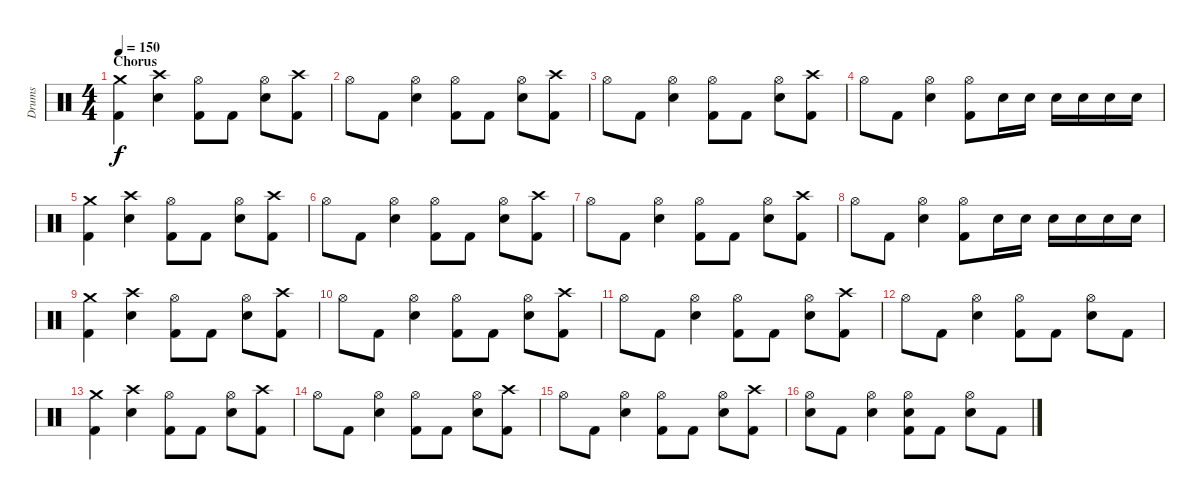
\track ("Drums" "Drums") {instrument percussion}
\staff {score}
\articulation defaults
\ts (4 4)
\section ("" "Chorus")
\tempo 150
\clef neutral
\ks c
("Crash medium (hit)" "Kick (hit) 2").4{dy f} ("Crash high (hit)" "Snare (hit) 2").4 ("Hi-Hat (open)" "Kick (hit) 2").8 "Kick (hit) 2".8 ("Hi-Hat (open)" "Snare (hit) 2").8 ("Crash high (hit)" "Kick (hit) 2").8 |
"Hi-Hat (open)".8 "Kick (hit) 2".8 ("Hi-Hat (open)" "Snare (hit) 2").4 ("Hi-Hat (open)" "Kick (hit) 2").8 "Kick (hit) 2".8 ("Hi-Hat (open)" "Snare (hit) 2").8 ("Crash high (hit)" "Kick (hit) 2").8 |
"Hi-Hat (open)".8 "Kick (hit) 2".8 ("Hi-Hat (open)" "Snare (hit) 2").4 ("Hi-Hat (open)" "Kick (hit) 2").8 "Kick (hit) 2".8 ("Hi-Hat (open)" "Snare (hit) 2").8 ("Crash high (hit)" "Kick (hit) 2").8 |
"Hi-Hat (open)".8 "Kick (hit) 2".8 ("Hi-Hat (open)" "Snare (hit) 2").4 ("Hi-Hat (open)" "Kick (hit) 2").8 "Snare (hit) 2".16 "Snare (hit) 2".16 "Snare (hit) 2".16 "Snare (hit) 2".16 "Snare (hit) 2".16 "Snare (hit) 2".16 |
\section ("" "")
("Crash medium (hit)" "Kick (hit) 2").4 ("Crash high (hit)" "Snare (hit) 2").4 ("Hi-Hat (open)" "Kick (hit) 2").8 "Kick (hit) 2".8 ("Hi-Hat (open)" "Snare (hit) 2").8 ("Crash high (hit)" "Kick (hit) 2").8 |
"Hi-Hat (open)".8 "Kick (hit) 2".8 ("Hi-Hat (open)" "Snare (hit) 2").4 ("Hi-Hat (open)" "Kick (hit) 2").8 "Kick (hit) 2".8 ("Hi-Hat (open)" "Snare (hit) 2").8 ("Crash high (hit)" "Kick (hit) 2").8 |
"Hi-Hat (open)".8 "Kick (hit) 2".8 ("Hi-Hat (open)" "Snare (hit) 2").4 ("Hi-Hat (open)" "Kick (hit) 2").8 "Kick (hit) 2".8 ("Hi-Hat (open)" "Snare (hit) 2").8 ("Crash high (hit)" "Kick (hit) 2").8 |
"Hi-Hat (open)".8 "Kick (hit) 2".8 ("Hi-Hat (open)" "Snare (hit) 2").4 ("Hi-Hat (open)" "Kick (hit) 2").8 "Snare (hit) 2".16 "Snare (hit) 2".16 "Snare (hit) 2".16 "Snare (hit) 2".16 "Snare (hit) 2".16 "Snare (hit) 2".16 |
\section ("" "")
("Crash medium (hit)" "Kick (hit) 2").4 ("Crash high (hit)" "Snare (hit) 2").4 ("Hi-Hat (open)" "Kick (hit) 2").8 "Kick (hit) 2".8 ("Hi-Hat (open)" "Snare (hit) 2").8 ("Crash high (hit)" "Kick (hit) 2").8 |
"Hi-Hat (open)".8 "Kick (hit) 2".8 ("Hi-Hat (open)" "Snare (hit) 2").4 ("Hi-Hat (open)" "Kick (hit) 2").8 "Kick (hit) 2".8 ("Hi-Hat (open)" "Snare (hit) 2").8 ("Crash high (hit)" "Kick (hit) 2").8 |
"Hi-Hat (open)".8 "Kick (hit) 2".8 ("Hi-Hat (open)" "Snare (hit) 2").4 ("Hi-Hat (open)" "Kick (hit) 2").8 "Kick (hit) 2".8 ("Hi-Hat (open)" "Snare (hit) 2").8 ("Crash high (hit)" "Kick (hit) 2").8 |
"Hi-Hat (open)".8 "Kick (hit) 2".8 ("Hi-Hat (open)" "Snare (hit) 2").4 ("Hi-Hat (open)" "Kick (hit) 2").8 "Kick (hit) 2".8 ("Hi-Hat (open)" "Snare (hit) 2").8 "Kick (hit) 2".8 |
\section ("" "")
("Crash medium (hit)" "Kick (hit) 2").4 ("Crash high (hit)" "Snare (hit) 2").4 ("Hi-Hat (open)" "Kick (hit) 2").8 "Kick (hit) 2".8 ("Hi-Hat (open)" "Snare (hit) 2").8 ("Crash high (hit)" "Kick (hit) 2").8 |
"Hi-Hat (open)".8 "Kick (hit) 2".8 ("Hi-Hat (open)" "Snare (hit) 2").4 ("Hi-Hat (open)" "Kick (hit) 2").8 "Kick (hit) 2".8 ("Hi-Hat (open)" "Snare (hit) 2").8 ("Crash high (hit)" "Kick (hit) 2").8 |
"Hi-Hat (open)".8 "Kick (hit) 2".8 ("Hi-Hat (open)" "Snare (hit) 2").4 ("Hi-Hat (open)" "Kick (hit) 2").8 "Kick (hit) 2".8 ("Hi-Hat (open)" "Snare (hit) 2").8 ("Crash high (hit)" "Kick (hit) 2").8 |
("Hi-Hat (open)" "Snare (hit) 2").8 "Kick (hit) 2".8 ("Hi-Hat (open)" "Snare (hit) 2").4 ("Hi-Hat (open)" "Snare (hit) 2" "Kick (hit) 2").8 "Kick (hit) 2".8 ("Hi-Hat (open)" "Snare (hit) 2").8 "Kick (hit) 2".8
